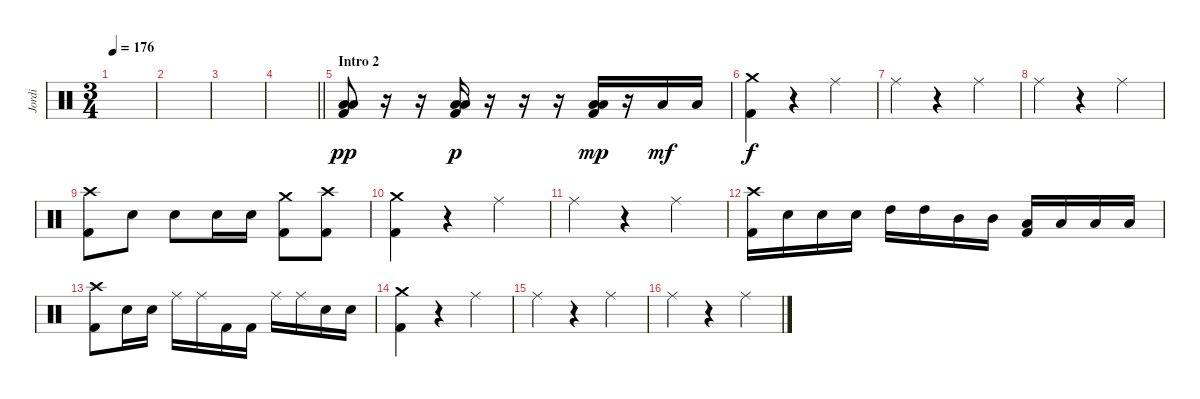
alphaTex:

\track ("Jordi" "Jordi") {instrument percussion}
\staff {score}
\articulation defaults
\ts (3 4)
\tempo 176
\clef neutral
\ks c
|
|
|
\barLineRight lightlight
|
\section ("" "Intro 2")
("Low Floor Tom (hit)" "Low Floor Tom (hit)" "Kick (hit) 2").8{dy pp} r.16 r.16 ("Low Floor Tom (hit)" "Low Floor Tom (hit)" "Kick (hit) 2").16{dy p} r.16 r.16 r.16 ("Low Floor Tom (hit)" "Low Floor Tom (hit)" "Kick (hit) 2").16{dy mp} r.16 "Low Floor Tom (hit)".16{dy mf} "Low Floor Tom (hit)".16 |
("Crash medium (hit)" "Kick (hit) 2").4{dy f} r.4 "Ride (middle)".4 |
"Ride (middle)".4 r.4 "Ride (middle)".4 |
"Ride (middle)".4 r.4 "Ride (middle)".4 |
("Crash high (hit)" "Kick (hit) 2").8 "Snare (hit) 2".8 "Snare (hit) 2".8 "Snare (hit) 2".16 "Snare (hit) 2".16 ("Crash medium (hit)" "Kick (hit) 2").8 ("Crash high (hit)" "Kick (hit) 2").8 |
("Crash medium (hit)" "Kick (hit) 2").4 r.4 "Ride (middle)".4 |
"Ride (middle)".4 r.4 "Ride (middle)".4 |
("Crash high (hit)" "Kick (hit) 2").16 "Snare (hit) 2".16 "Snare (hit) 2".16 "Snare (hit) 2".16 "High Tom (hit)".16 "High Tom (hit)".16 "Mid Tom (hit)".16 "Mid Tom (hit)".16 ("Low Floor Tom (hit)" "Kick (hit) 2").16 "Low Floor Tom (hit)".16 "Low Floor Tom (hit)".16 "Low Floor Tom (hit)".16 |
("Crash high (hit)" "Kick (hit) 2").8 "Snare (hit) 2".16 "Snare (hit) 2".16 "Ride (middle)".16 "Ride (middle)".16 "Kick (hit) 2".16 "Kick (hit) 2".16 "Ride (middle)".16 "Ride (middle)".16 "Snare (hit) 2".16 "Snare (hit) 2".16 |
("Crash medium (hit)" "Kick (hit) 2").4 r.4 "Ride (middle)".4 |
"Ride (middle)".4 r.4 "Ride (middle)".4 |
"Ride (middle)".4 r.4 "Ride (middle)".4
